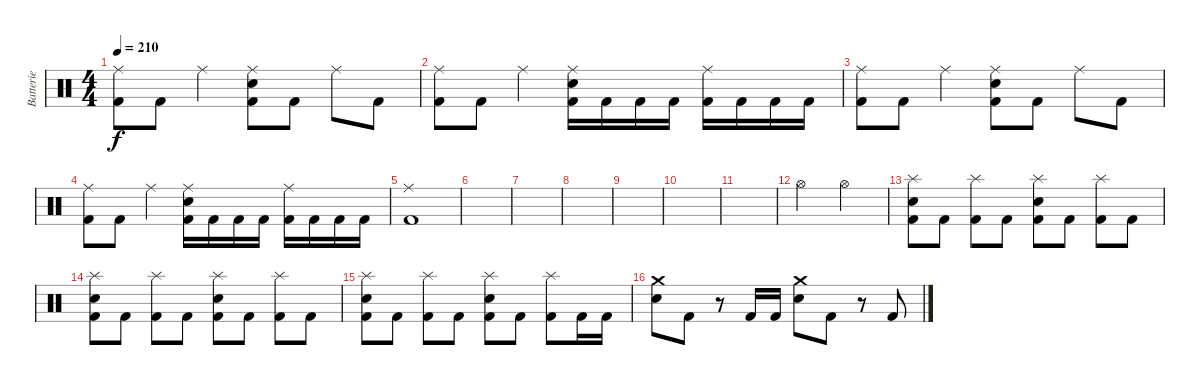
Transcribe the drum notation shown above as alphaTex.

\track ("Batterie" "Batterie") {instrument percussion}
\staff {score}
\articulation defaults
\ts (4 4)
\tempo 210
\clef neutral
\ks c
("Ride (middle)" "Kick (hit) 2").8{dy f} "Kick (hit) 2".8 "Ride (middle)".4 ("Ride (middle)" "Electric Snare (hit)" "Kick (hit) 2").8 "Kick (hit) 2".8 "Ride (middle)".8 "Kick (hit) 2".8 |
("Ride (middle)" "Kick (hit) 2").8 "Kick (hit) 2".8 "Ride (middle)".4 ("Ride (middle)" "Electric Snare (hit)" "Kick (hit) 2").16 "Kick (hit) 2".16 "Kick (hit) 2".16 "Kick (hit) 2".16 ("Ride (middle)" "Kick (hit) 2").16 "Kick (hit) 2".16 "Kick (hit) 2".16 "Kick (hit) 2".16 |
("Ride (middle)" "Kick (hit) 2").8 "Kick (hit) 2".8 "Ride (middle)".4 ("Ride (middle)" "Electric Snare (hit)" "Kick (hit) 2").8 "Kick (hit) 2".8 "Ride (middle)".8 "Kick (hit) 2".8 |
("Ride (middle)" "Kick (hit) 2").8 "Kick (hit) 2".8 "Ride (middle)".4 ("Ride (middle)" "Electric Snare (hit)" "Kick (hit) 2").16 "Kick (hit) 2".16 "Kick (hit) 2".16 "Kick (hit) 2".16 ("Ride (middle)" "Kick (hit) 2").16 "Kick (hit) 2".16 "Kick (hit) 2".16 "Kick (hit) 2".16 |
("Ride (middle)" "Kick (hit) 2").1 |
|
|
|
|
|
|
"Hi-Hat (open)".2 "Hi-Hat (open)".2 |
("Splash (hit)" "Electric Snare (hit)" "Kick (hit) 2").8 "Kick (hit) 2".8 ("Splash (hit)" "Kick (hit) 2").8 "Kick (hit) 2".8 ("Splash (hit)" "Electric Snare (hit)" "Kick (hit) 2").8 "Kick (hit) 2".8 ("Splash (hit)" "Kick (hit) 2").8 "Kick (hit) 2".8 |
("Splash (hit)" "Electric Snare (hit)" "Kick (hit) 2").8 "Kick (hit) 2".8 ("Splash (hit)" "Kick (hit) 2").8 "Kick (hit) 2".8 ("Splash (hit)" "Electric Snare (hit)" "Kick (hit) 2").8 "Kick (hit) 2".8 ("Splash (hit)" "Kick (hit) 2").8 "Kick (hit) 2".8 |
("Splash (hit)" "Electric Snare (hit)" "Kick (hit) 2").8 "Kick (hit) 2".8 ("Splash (hit)" "Kick (hit) 2").8 "Kick (hit) 2".8 ("Splash (hit)" "Electric Snare (hit)" "Kick (hit) 2").8 "Kick (hit) 2".8 ("Splash (hit)" "Kick (hit) 2").8 "Kick (hit) 2".16 "Kick (hit) 2".16 |
("Crash medium (hit)" "Electric Snare (hit)").8 "Kick (hit) 2".8 r.8 "Kick (hit) 2".16 "Kick (hit) 2".16 ("Crash medium (hit)" "Electric Snare (hit)").8 "Kick (hit) 2".8 r.8 "Kick (hit) 2".8
